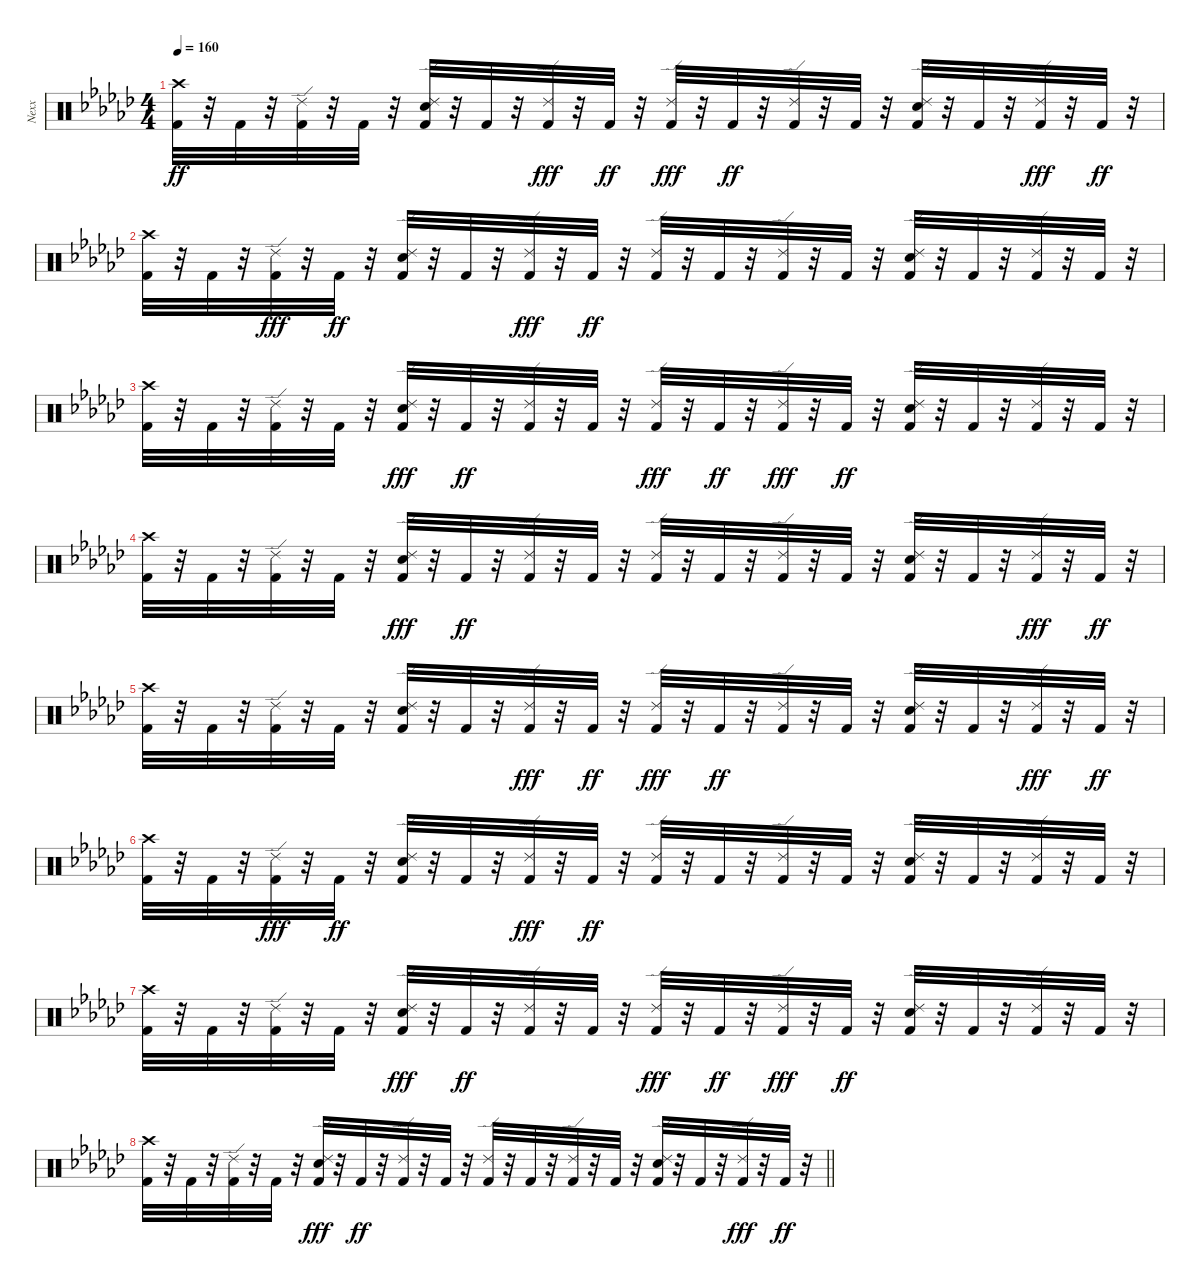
\track ("Nexx" "Nexx") {instrument percussion}
\staff {score}
\articulation defaults
\ts (4 4)
\tempo 160
\clef neutral
\ks ebminor
("Crash high (hit)" "Kick (hit) 2").32{dy ff volume 13} r.32 "Kick (hit) 2".32 r.32 ("Ride (edge) 2" "Kick (hit) 2").32 r.32 "Kick (hit) 2".32 r.32 ("Kick (hit) 2" "Ride (edge) 2" "Electric Snare (hit)").32 r.32 "Kick (hit) 2".32 r.32 ("Kick (hit) 2" "Ride (edge) 2").32{dy fff} r.32 "Kick (hit) 2".32{dy ff} r.32 ("Kick (hit) 2" "Ride (edge) 2").32{dy fff} r.32 "Kick (hit) 2".32{dy ff} r.32 ("Ride (edge) 2" "Kick (hit) 2").32 r.32 "Kick (hit) 2".32 r.32 ("Electric Snare (hit)" "Ride (edge) 2" "Kick (hit) 2").32 r.32 "Kick (hit) 2".32 r.32 ("Kick (hit) 2" "Ride (edge) 2").32{dy fff} r.32 "Kick (hit) 2".32{dy ff} r.32 |
("Kick (hit) 2" "Crash high (hit)").32 r.32 "Kick (hit) 2".32 r.32 ("Kick (hit) 2" "Ride (edge) 2").32{dy fff} r.32 "Kick (hit) 2".32{dy ff} r.32 ("Electric Snare (hit)" "Ride (edge) 2" "Kick (hit) 2").32 r.32 "Kick (hit) 2".32 r.32 ("Kick (hit) 2" "Ride (edge) 2").32{dy fff} r.32 "Kick (hit) 2".32{dy ff} r.32 ("Ride (edge) 2" "Kick (hit) 2").32 r.32 "Kick (hit) 2".32 r.32 ("Ride (edge) 2" "Kick (hit) 2").32 r.32 "Kick (hit) 2".32 r.32 ("Kick (hit) 2" "Ride (edge) 2" "Electric Snare (hit)").32 r.32 "Kick (hit) 2".32 r.32 ("Ride (edge) 2" "Kick (hit) 2").32 r.32 "Kick (hit) 2".32 r.32 |
("Crash high (hit)" "Kick (hit) 2").32 r.32 "Kick (hit) 2".32 r.32 ("Ride (edge) 2" "Kick (hit) 2").32 r.32 "Kick (hit) 2".32 r.32 ("Kick (hit) 2" "Electric Snare (hit)" "Ride (edge) 2").32{dy fff} r.32 "Kick (hit) 2".32{dy ff} r.32 ("Ride (edge) 2" "Kick (hit) 2").32 r.32 "Kick (hit) 2".32 r.32 ("Kick (hit) 2" "Ride (edge) 2").32{dy fff} r.32 "Kick (hit) 2".32{dy ff} r.32 ("Kick (hit) 2" "Ride (edge) 2").32{dy fff} r.32 "Kick (hit) 2".32{dy ff} r.32 ("Ride (edge) 2" "Electric Snare (hit)" "Kick (hit) 2").32 r.32 "Kick (hit) 2".32 r.32 ("Ride (edge) 2" "Kick (hit) 2").32 r.32 "Kick (hit) 2".32 r.32 |
("Kick (hit) 2" "Crash high (hit)").32 r.32 "Kick (hit) 2".32 r.32 ("Ride (edge) 2" "Kick (hit) 2").32 r.32 "Kick (hit) 2".32 r.32 ("Electric Snare (hit)" "Kick (hit) 2" "Ride (edge) 2").32{dy fff} r.32 "Kick (hit) 2".32{dy ff} r.32 ("Ride (edge) 2" "Kick (hit) 2").32 r.32 "Kick (hit) 2".32 r.32 ("Ride (edge) 2" "Kick (hit) 2").32 r.32 "Kick (hit) 2".32 r.32 ("Ride (edge) 2" "Kick (hit) 2").32 r.32 "Kick (hit) 2".32 r.32 ("Kick (hit) 2" "Ride (edge) 2" "Electric Snare (hit)").32 r.32 "Kick (hit) 2".32 r.32 ("Kick (hit) 2" "Ride (edge) 2").32{dy fff} r.32 "Kick (hit) 2".32{dy ff} r.32 |
("Crash high (hit)" "Kick (hit) 2").32 r.32 "Kick (hit) 2".32 r.32 ("Ride (edge) 2" "Kick (hit) 2").32 r.32 "Kick (hit) 2".32 r.32 ("Kick (hit) 2" "Ride (edge) 2" "Electric Snare (hit)").32 r.32 "Kick (hit) 2".32 r.32 ("Kick (hit) 2" "Ride (edge) 2").32{dy fff} r.32 "Kick (hit) 2".32{dy ff} r.32 ("Kick (hit) 2" "Ride (edge) 2").32{dy fff} r.32 "Kick (hit) 2".32{dy ff} r.32 ("Ride (edge) 2" "Kick (hit) 2").32 r.32 "Kick (hit) 2".32 r.32 ("Electric Snare (hit)" "Ride (edge) 2" "Kick (hit) 2").32 r.32 "Kick (hit) 2".32 r.32 ("Kick (hit) 2" "Ride (edge) 2").32{dy fff} r.32 "Kick (hit) 2".32{dy ff} r.32 |
("Kick (hit) 2" "Crash high (hit)").32 r.32 "Kick (hit) 2".32 r.32 ("Kick (hit) 2" "Ride (edge) 2").32{dy fff} r.32 "Kick (hit) 2".32{dy ff} r.32 ("Electric Snare (hit)" "Ride (edge) 2" "Kick (hit) 2").32 r.32 "Kick (hit) 2".32 r.32 ("Kick (hit) 2" "Ride (edge) 2").32{dy fff} r.32 "Kick (hit) 2".32{dy ff} r.32 ("Ride (edge) 2" "Kick (hit) 2").32 r.32 "Kick (hit) 2".32 r.32 ("Ride (edge) 2" "Kick (hit) 2").32 r.32 "Kick (hit) 2".32 r.32 ("Kick (hit) 2" "Ride (edge) 2" "Electric Snare (hit)").32 r.32 "Kick (hit) 2".32 r.32 ("Ride (edge) 2" "Kick (hit) 2").32 r.32 "Kick (hit) 2".32 r.32 |
("Crash high (hit)" "Kick (hit) 2").32 r.32 "Kick (hit) 2".32 r.32 ("Ride (edge) 2" "Kick (hit) 2").32 r.32 "Kick (hit) 2".32 r.32 ("Kick (hit) 2" "Electric Snare (hit)" "Ride (edge) 2").32{dy fff} r.32 "Kick (hit) 2".32{dy ff} r.32 ("Ride (edge) 2" "Kick (hit) 2").32 r.32 "Kick (hit) 2".32 r.32 ("Kick (hit) 2" "Ride (edge) 2").32{dy fff} r.32 "Kick (hit) 2".32{dy ff} r.32 ("Kick (hit) 2" "Ride (edge) 2").32{dy fff} r.32 "Kick (hit) 2".32{dy ff} r.32 ("Ride (edge) 2" "Electric Snare (hit)" "Kick (hit) 2").32 r.32 "Kick (hit) 2".32 r.32 ("Ride (edge) 2" "Kick (hit) 2").32 r.32 "Kick (hit) 2".32 r.32 |
\barLineRight lightlight
("Kick (hit) 2" "Crash high (hit)").32 r.32 "Kick (hit) 2".32 r.32 ("Ride (edge) 2" "Kick (hit) 2").32 r.32 "Kick (hit) 2".32 r.32 ("Electric Snare (hit)" "Kick (hit) 2" "Ride (edge) 2").32{dy fff} r.32 "Kick (hit) 2".32{dy ff} r.32 ("Ride (edge) 2" "Kick (hit) 2").32 r.32 "Kick (hit) 2".32 r.32 ("Ride (edge) 2" "Kick (hit) 2").32 r.32 "Kick (hit) 2".32 r.32 ("Ride (edge) 2" "Kick (hit) 2").32 r.32 "Kick (hit) 2".32 r.32 ("Kick (hit) 2" "Ride (edge) 2" "Electric Snare (hit)").32 r.32 "Kick (hit) 2".32 r.32 ("Kick (hit) 2" "Ride (edge) 2").32{dy fff} r.32 "Kick (hit) 2".32{dy ff} r.32
